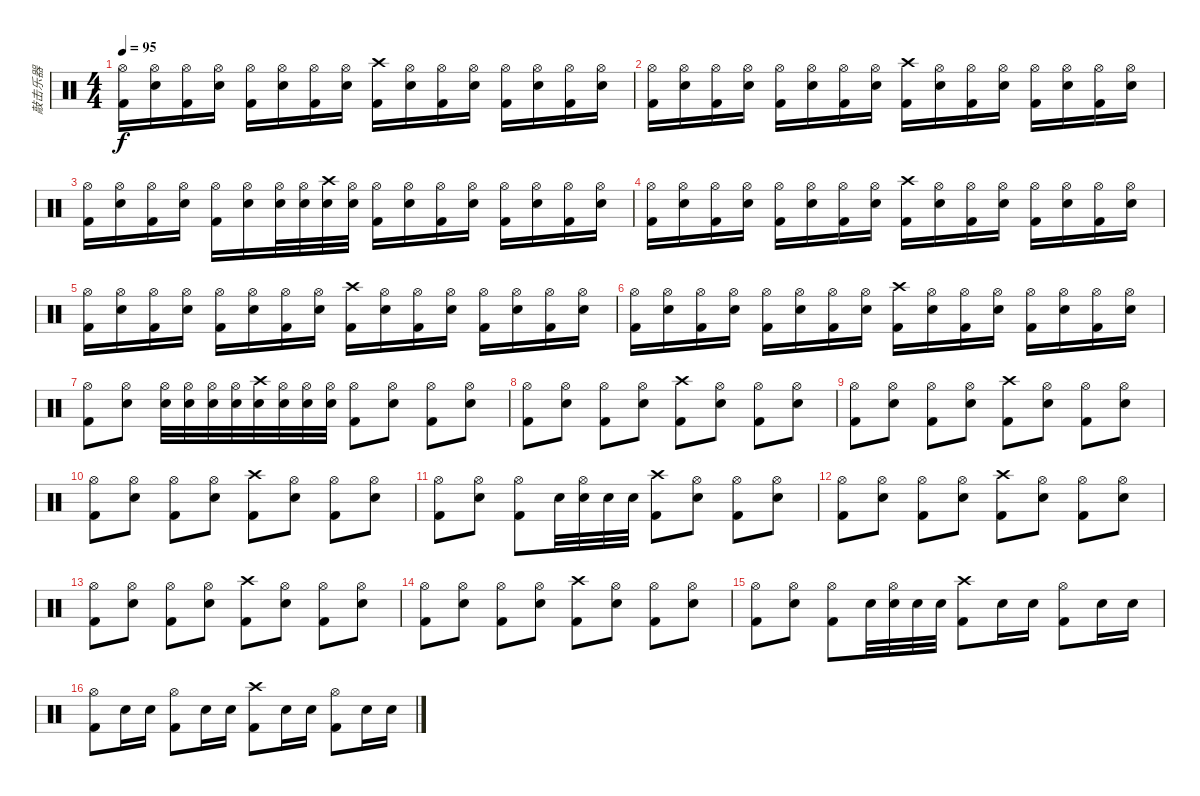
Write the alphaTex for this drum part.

\track ("敲击乐器" "敲击乐器") {instrument percussion}
\staff {score}
\articulation defaults
\ts (4 4)
\tempo 95
\clef neutral
\ks c
("Hi-Hat (open)" "Kick (hit) 2").16{dy f} ("Hi-Hat (open)" "Snare (hit) 2").16 ("Hi-Hat (open)" "Kick (hit) 2").16 ("Hi-Hat (open)" "Snare (hit) 2").16 ("Hi-Hat (open)" "Kick (hit) 2").16 ("Hi-Hat (open)" "Snare (hit) 2").16 ("Hi-Hat (open)" "Kick (hit) 2").16 ("Hi-Hat (open)" "Snare (hit) 2").16 ("Crash high (hit)" "Kick (hit) 2").16 ("Hi-Hat (open)" "Snare (hit) 2").16 ("Hi-Hat (open)" "Kick (hit) 2").16 ("Hi-Hat (open)" "Snare (hit) 2").16 ("Hi-Hat (open)" "Kick (hit) 2").16 ("Hi-Hat (open)" "Snare (hit) 2").16 ("Hi-Hat (open)" "Kick (hit) 2").16 ("Hi-Hat (open)" "Snare (hit) 2").16 |
("Hi-Hat (open)" "Kick (hit) 2").16 ("Hi-Hat (open)" "Snare (hit) 2").16 ("Hi-Hat (open)" "Kick (hit) 2").16 ("Hi-Hat (open)" "Snare (hit) 2").16 ("Hi-Hat (open)" "Kick (hit) 2").16 ("Hi-Hat (open)" "Snare (hit) 2").16 ("Hi-Hat (open)" "Kick (hit) 2").16 ("Hi-Hat (open)" "Snare (hit) 2").16 ("Crash high (hit)" "Kick (hit) 2").16 ("Hi-Hat (open)" "Snare (hit) 2").16 ("Hi-Hat (open)" "Kick (hit) 2").16 ("Hi-Hat (open)" "Snare (hit) 2").16 ("Hi-Hat (open)" "Kick (hit) 2").16 ("Hi-Hat (open)" "Snare (hit) 2").16 ("Hi-Hat (open)" "Kick (hit) 2").16 ("Hi-Hat (open)" "Snare (hit) 2").16 |
("Hi-Hat (open)" "Kick (hit) 2").16 ("Hi-Hat (open)" "Snare (hit) 2").16 ("Hi-Hat (open)" "Kick (hit) 2").16 ("Hi-Hat (open)" "Snare (hit) 2").16 ("Hi-Hat (open)" "Kick (hit) 2").16 ("Hi-Hat (open)" "Snare (hit) 2").16 ("Hi-Hat (open)" "Snare (hit) 2").32 ("Hi-Hat (open)" "Snare (hit) 2").32 ("Crash high (hit)" "Snare (hit) 2").32 ("Hi-Hat (open)" "Snare (hit) 2").32 ("Hi-Hat (open)" "Kick (hit) 2").16 ("Hi-Hat (open)" "Snare (hit) 2").16 ("Hi-Hat (open)" "Kick (hit) 2").16 ("Hi-Hat (open)" "Snare (hit) 2").16 ("Hi-Hat (open)" "Kick (hit) 2").16 ("Hi-Hat (open)" "Snare (hit) 2").16 ("Hi-Hat (open)" "Kick (hit) 2").16 ("Hi-Hat (open)" "Snare (hit) 2").16 |
("Hi-Hat (open)" "Kick (hit) 2").16 ("Hi-Hat (open)" "Snare (hit) 2").16 ("Hi-Hat (open)" "Kick (hit) 2").16 ("Hi-Hat (open)" "Snare (hit) 2").16 ("Hi-Hat (open)" "Kick (hit) 2").16 ("Hi-Hat (open)" "Snare (hit) 2").16 ("Hi-Hat (open)" "Kick (hit) 2").16 ("Hi-Hat (open)" "Snare (hit) 2").16 ("Crash high (hit)" "Kick (hit) 2").16 ("Hi-Hat (open)" "Snare (hit) 2").16 ("Hi-Hat (open)" "Kick (hit) 2").16 ("Hi-Hat (open)" "Snare (hit) 2").16 ("Hi-Hat (open)" "Kick (hit) 2").16 ("Hi-Hat (open)" "Snare (hit) 2").16 ("Hi-Hat (open)" "Kick (hit) 2").16 ("Hi-Hat (open)" "Snare (hit) 2").16 |
("Hi-Hat (open)" "Kick (hit) 2").16 ("Hi-Hat (open)" "Snare (hit) 2").16 ("Hi-Hat (open)" "Kick (hit) 2").16 ("Hi-Hat (open)" "Snare (hit) 2").16 ("Hi-Hat (open)" "Kick (hit) 2").16 ("Hi-Hat (open)" "Snare (hit) 2").16 ("Hi-Hat (open)" "Kick (hit) 2").16 ("Hi-Hat (open)" "Snare (hit) 2").16 ("Crash high (hit)" "Kick (hit) 2").16 ("Hi-Hat (open)" "Snare (hit) 2").16 ("Hi-Hat (open)" "Kick (hit) 2").16 ("Hi-Hat (open)" "Snare (hit) 2").16 ("Hi-Hat (open)" "Kick (hit) 2").16 ("Hi-Hat (open)" "Snare (hit) 2").16 ("Hi-Hat (open)" "Kick (hit) 2").16 ("Hi-Hat (open)" "Snare (hit) 2").16 |
("Hi-Hat (open)" "Kick (hit) 2").16 ("Hi-Hat (open)" "Snare (hit) 2").16 ("Hi-Hat (open)" "Kick (hit) 2").16 ("Hi-Hat (open)" "Snare (hit) 2").16 ("Hi-Hat (open)" "Kick (hit) 2").16 ("Hi-Hat (open)" "Snare (hit) 2").16 ("Hi-Hat (open)" "Kick (hit) 2").16 ("Hi-Hat (open)" "Snare (hit) 2").16 ("Crash high (hit)" "Kick (hit) 2").16 ("Hi-Hat (open)" "Snare (hit) 2").16 ("Hi-Hat (open)" "Kick (hit) 2").16 ("Hi-Hat (open)" "Snare (hit) 2").16 ("Hi-Hat (open)" "Kick (hit) 2").16 ("Hi-Hat (open)" "Snare (hit) 2").16 ("Hi-Hat (open)" "Kick (hit) 2").16 ("Hi-Hat (open)" "Snare (hit) 2").16 |
("Hi-Hat (open)" "Kick (hit) 2").8 ("Hi-Hat (open)" "Snare (hit) 2").8 ("Hi-Hat (open)" "Snare (hit) 2").32 ("Hi-Hat (open)" "Snare (hit) 2").32 ("Hi-Hat (open)" "Snare (hit) 2").32 ("Hi-Hat (open)" "Snare (hit) 2").32 ("Crash high (hit)" "Snare (hit) 2").32 ("Hi-Hat (open)" "Snare (hit) 2").32 ("Hi-Hat (open)" "Snare (hit) 2").32 ("Hi-Hat (open)" "Snare (hit) 2").32 ("Hi-Hat (open)" "Kick (hit) 2").8 ("Hi-Hat (open)" "Snare (hit) 2").8 ("Hi-Hat (open)" "Kick (hit) 2").8 ("Hi-Hat (open)" "Snare (hit) 2").8 |
("Hi-Hat (open)" "Kick (hit) 2").8 ("Hi-Hat (open)" "Snare (hit) 2").8 ("Hi-Hat (open)" "Kick (hit) 2").8 ("Hi-Hat (open)" "Snare (hit) 2").8 ("Crash high (hit)" "Kick (hit) 2").8 ("Hi-Hat (open)" "Snare (hit) 2").8 ("Hi-Hat (open)" "Kick (hit) 2").8 ("Hi-Hat (open)" "Snare (hit) 2").8 |
("Hi-Hat (open)" "Kick (hit) 2").8 ("Hi-Hat (open)" "Snare (hit) 2").8 ("Hi-Hat (open)" "Kick (hit) 2").8 ("Hi-Hat (open)" "Snare (hit) 2").8 ("Crash high (hit)" "Kick (hit) 2").8 ("Hi-Hat (open)" "Snare (hit) 2").8 ("Hi-Hat (open)" "Kick (hit) 2").8 ("Hi-Hat (open)" "Snare (hit) 2").8 |
("Hi-Hat (open)" "Kick (hit) 2").8 ("Hi-Hat (open)" "Snare (hit) 2").8 ("Hi-Hat (open)" "Kick (hit) 2").8 ("Hi-Hat (open)" "Snare (hit) 2").8 ("Crash high (hit)" "Kick (hit) 2").8 ("Hi-Hat (open)" "Snare (hit) 2").8 ("Hi-Hat (open)" "Kick (hit) 2").8 ("Hi-Hat (open)" "Snare (hit) 2").8 |
("Hi-Hat (open)" "Kick (hit) 2").8 ("Hi-Hat (open)" "Snare (hit) 2").8 ("Hi-Hat (open)" "Kick (hit) 2").8 "Snare (hit) 2".32 ("Hi-Hat (open)" "Snare (hit) 2").32 "Snare (hit) 2".32 "Snare (hit) 2".32 ("Crash high (hit)" "Kick (hit) 2").8 ("Hi-Hat (open)" "Snare (hit) 2").8 ("Hi-Hat (open)" "Kick (hit) 2").8 ("Hi-Hat (open)" "Snare (hit) 2").8 |
("Hi-Hat (open)" "Kick (hit) 2").8 ("Hi-Hat (open)" "Snare (hit) 2").8 ("Hi-Hat (open)" "Kick (hit) 2").8 ("Hi-Hat (open)" "Snare (hit) 2").8 ("Crash high (hit)" "Kick (hit) 2").8 ("Hi-Hat (open)" "Snare (hit) 2").8 ("Hi-Hat (open)" "Kick (hit) 2").8 ("Hi-Hat (open)" "Snare (hit) 2").8 |
("Hi-Hat (open)" "Kick (hit) 2").8 ("Hi-Hat (open)" "Snare (hit) 2").8 ("Hi-Hat (open)" "Kick (hit) 2").8 ("Hi-Hat (open)" "Snare (hit) 2").8 ("Crash high (hit)" "Kick (hit) 2").8 ("Hi-Hat (open)" "Snare (hit) 2").8 ("Hi-Hat (open)" "Kick (hit) 2").8 ("Hi-Hat (open)" "Snare (hit) 2").8 |
("Hi-Hat (open)" "Kick (hit) 2").8 ("Hi-Hat (open)" "Snare (hit) 2").8 ("Hi-Hat (open)" "Kick (hit) 2").8 ("Hi-Hat (open)" "Snare (hit) 2").8 ("Crash high (hit)" "Kick (hit) 2").8 ("Hi-Hat (open)" "Snare (hit) 2").8 ("Hi-Hat (open)" "Kick (hit) 2").8 ("Hi-Hat (open)" "Snare (hit) 2").8 |
("Hi-Hat (open)" "Kick (hit) 2").8 ("Hi-Hat (open)" "Snare (hit) 2").8 ("Hi-Hat (open)" "Kick (hit) 2").8 "Snare (hit) 2".32 ("Hi-Hat (open)" "Snare (hit) 2").32 "Snare (hit) 2".32 "Snare (hit) 2".32 ("Crash high (hit)" "Kick (hit) 2").8 "Snare (hit) 2".16 "Snare (hit) 2".16 ("Hi-Hat (open)" "Kick (hit) 2").8 "Snare (hit) 2".16 "Snare (hit) 2".16 |
("Hi-Hat (open)" "Kick (hit) 2").8 "Snare (hit) 2".16 "Snare (hit) 2".16 ("Hi-Hat (open)" "Kick (hit) 2").8 "Snare (hit) 2".16 "Snare (hit) 2".16 ("Crash high (hit)" "Kick (hit) 2").8 "Snare (hit) 2".16 "Snare (hit) 2".16 ("Hi-Hat (open)" "Kick (hit) 2").8 "Snare (hit) 2".16 "Snare (hit) 2".16
